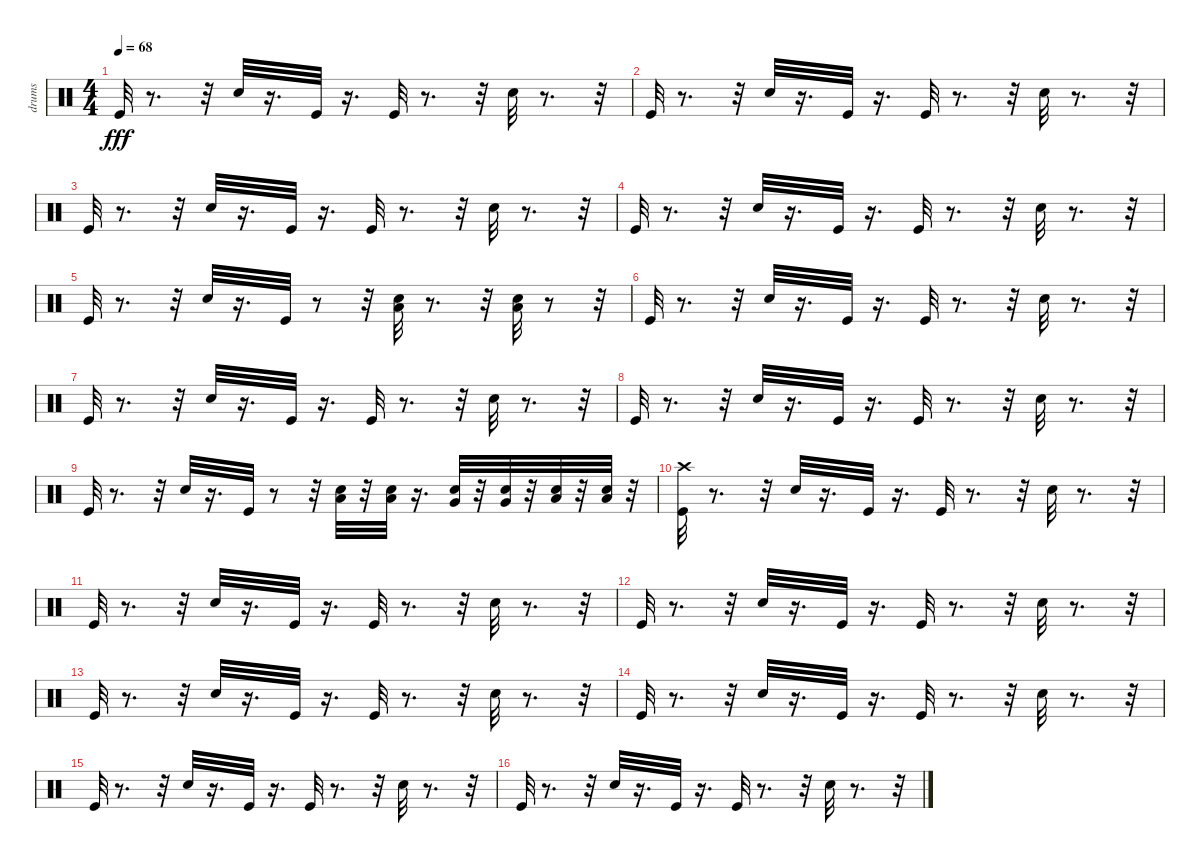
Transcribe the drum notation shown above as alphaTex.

\track ("drums" "drums") {instrument percussion}
\staff {score}
\articulation defaults
\ts (4 4)
\tempo 68
\clef neutral
\ks c "Kick (hit)".32{dy fff}
r.8{d} r.32 "Snare (hit) 2".32 r.16{d} "Kick (hit)".32 r.16{d} "Kick (hit)".32 r.8{d} r.32 "Snare (hit) 2".32 r.8{d} r.32 |
"Kick (hit)".32 r.8{d} r.32 "Snare (hit) 2".32 r.16{d} "Kick (hit)".32 r.16{d} "Kick (hit)".32 r.8{d} r.32 "Snare (hit) 2".32 r.8{d} r.32 |
"Kick (hit)".32 r.8{d} r.32 "Snare (hit) 2".32 r.16{d} "Kick (hit)".32 r.16{d} "Kick (hit)".32 r.8{d} r.32 "Snare (hit) 2".32 r.8{d} r.32 |
"Kick (hit)".32 r.8{d} r.32 "Snare (hit) 2".32 r.16{d} "Kick (hit)".32 r.16{d} "Kick (hit)".32 r.8{d} r.32 "Snare (hit) 2".32 r.8{d} r.32 |
"Kick (hit)".32 r.8{d} r.32 "Snare (hit) 2".32 r.16{d} "Kick (hit)".32 r.8 r.32 ("Snare (hit) 2" "Low Tom (hit)").32 r.8{d} r.32 ("Snare (hit) 2" "Low Tom (hit)").32 r.8 r.32 |
"Kick (hit)".32 r.8{d} r.32 "Snare (hit) 2".32 r.16{d} "Kick (hit)".32 r.16{d} "Kick (hit)".32 r.8{d} r.32 "Snare (hit) 2".32 r.8{d} r.32 |
"Kick (hit)".32 r.8{d} r.32 "Snare (hit) 2".32 r.16{d} "Kick (hit)".32 r.16{d} "Kick (hit)".32 r.8{d} r.32 "Snare (hit) 2".32 r.8{d} r.32 |
"Kick (hit)".32 r.8{d} r.32 "Snare (hit) 2".32 r.16{d} "Kick (hit)".32 r.16{d} "Kick (hit)".32 r.8{d} r.32 "Snare (hit) 2".32 r.8{d} r.32 |
"Kick (hit)".32 r.8{d} r.32 "Snare (hit) 2".32 r.16{d} "Kick (hit)".32 r.8 r.32 ("Snare (hit) 2" "Low Tom (hit)").32 r.32 ("Snare (hit) 2" "Low Tom (hit)").32 r.16{d} ("Snare (hit) 2" "Very Low Tom (hit)").32 r.32 ("Snare (hit) 2" "Very Low Tom (hit)").32 r.32 ("Snare (hit) 2" "Low Floor Tom (hit)").32 r.32 ("Snare (hit) 2" "Low Floor Tom (hit)").32 r.32 |
("Kick (hit)" "Crash high (hit)").32 r.8{d} r.32 "Snare (hit) 2".32 r.16{d} "Kick (hit)".32 r.16{d} "Kick (hit)".32 r.8{d} r.32 "Snare (hit) 2".32 r.8{d} r.32 |
"Kick (hit)".32 r.8{d} r.32 "Snare (hit) 2".32 r.16{d} "Kick (hit)".32 r.16{d} "Kick (hit)".32 r.8{d} r.32 "Snare (hit) 2".32 r.8{d} r.32 |
"Kick (hit)".32 r.8{d} r.32 "Snare (hit) 2".32 r.16{d} "Kick (hit)".32 r.16{d} "Kick (hit)".32 r.8{d} r.32 "Snare (hit) 2".32 r.8{d} r.32 |
"Kick (hit)".32 r.8{d} r.32 "Snare (hit) 2".32 r.16{d} "Kick (hit)".32 r.16{d} "Kick (hit)".32 r.8{d} r.32 "Snare (hit) 2".32 r.8{d} r.32 |
"Kick (hit)".32 r.8{d} r.32 "Snare (hit) 2".32 r.16{d} "Kick (hit)".32 r.16{d} "Kick (hit)".32 r.8{d} r.32 "Snare (hit) 2".32 r.8{d} r.32 |
"Kick (hit)".32 r.8{d} r.32 "Snare (hit) 2".32 r.16{d} "Kick (hit)".32 r.16{d} "Kick (hit)".32 r.8{d} r.32 "Snare (hit) 2".32 r.8{d} r.32 |
"Kick (hit)".32 r.8{d} r.32 "Snare (hit) 2".32 r.16{d} "Kick (hit)".32 r.16{d} "Kick (hit)".32 r.8{d} r.32 "Snare (hit) 2".32 r.8{d} r.32
